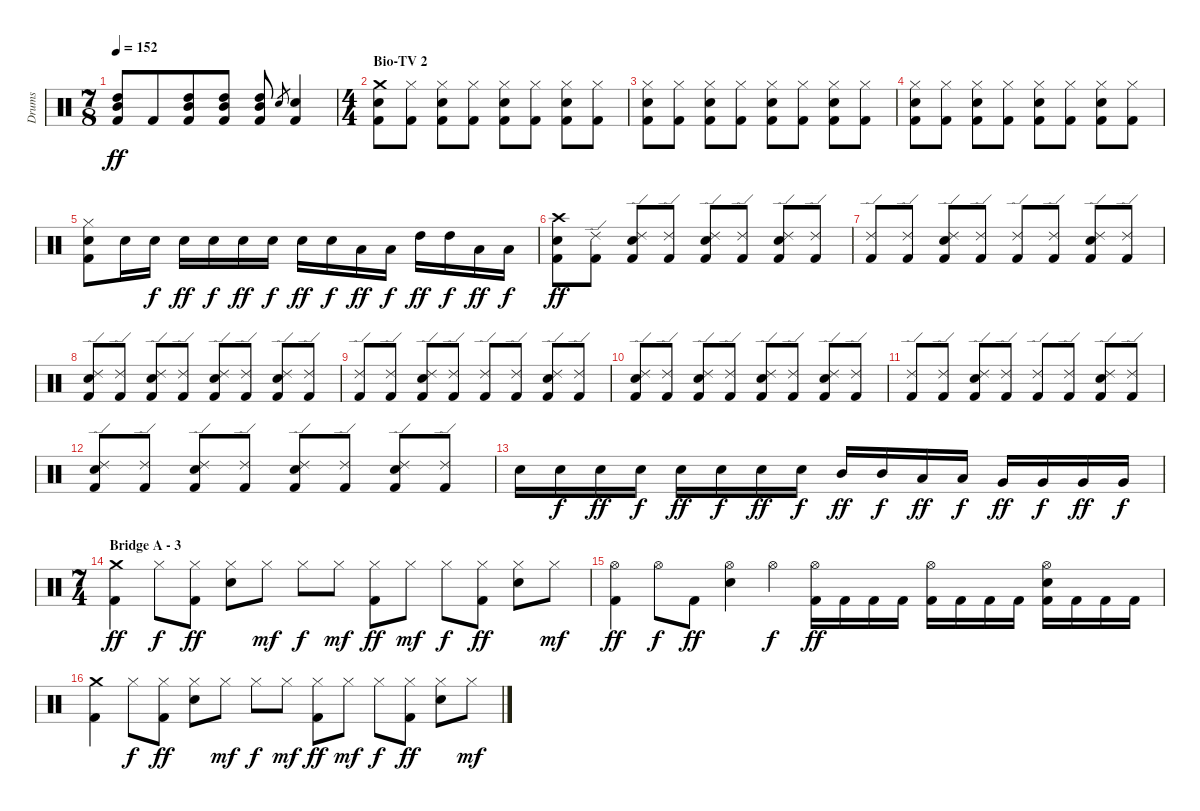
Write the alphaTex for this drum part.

\track ("Drums" "Drums") {instrument percussion}
\staff {score}
\articulation defaults
\ts (7 8)
\tempo 152
\clef neutral
\ks c
("High Tom (hit)" "Mid Tom (hit)" "Kick (hit) 2").8{dy ff} "Kick (hit) 2".8 ("High Tom (hit)" "Mid Tom (hit)" "Kick (hit) 2").8 ("High Tom (hit)" "Mid Tom (hit)" "Kick (hit) 2").8 ("High Tom (hit)" "Mid Tom (hit)" "Kick (hit) 2").8 "Electric Snare (hit)".8{gr} ("Electric Snare (hit)" "Kick (hit) 2").4 |
\ts (4 4)
\section ("" "Bio-TV 2")
("Crash medium (hit)" "Electric Snare (hit)" "Kick (hit) 2").8 ("Hi-Hat (closed)" "Kick (hit) 2").8 ("Hi-Hat (closed)" "Electric Snare (hit)" "Kick (hit) 2").8 ("Hi-Hat (closed)" "Kick (hit) 2").8 ("Hi-Hat (closed)" "Electric Snare (hit)" "Kick (hit) 2").8 ("Hi-Hat (closed)" "Kick (hit) 2").8 ("Hi-Hat (closed)" "Electric Snare (hit)" "Kick (hit) 2").8 ("Hi-Hat (closed)" "Kick (hit) 2").8 |
("Hi-Hat (closed)" "Electric Snare (hit)" "Kick (hit) 2").8 ("Hi-Hat (closed)" "Kick (hit) 2").8 ("Hi-Hat (closed)" "Electric Snare (hit)" "Kick (hit) 2").8 ("Hi-Hat (closed)" "Kick (hit) 2").8 ("Hi-Hat (closed)" "Electric Snare (hit)" "Kick (hit) 2").8 ("Hi-Hat (closed)" "Kick (hit) 2").8 ("Hi-Hat (closed)" "Electric Snare (hit)" "Kick (hit) 2").8 ("Hi-Hat (closed)" "Kick (hit) 2").8 |
("Hi-Hat (closed)" "Electric Snare (hit)" "Kick (hit) 2").8 ("Hi-Hat (closed)" "Kick (hit) 2").8 ("Hi-Hat (closed)" "Electric Snare (hit)" "Kick (hit) 2").8 ("Hi-Hat (closed)" "Kick (hit) 2").8 ("Hi-Hat (closed)" "Electric Snare (hit)" "Kick (hit) 2").8 ("Hi-Hat (closed)" "Kick (hit) 2").8 ("Hi-Hat (closed)" "Electric Snare (hit)" "Kick (hit) 2").8 ("Hi-Hat (closed)" "Kick (hit) 2").8 |
("Hi-Hat (closed)" "Electric Snare (hit)" "Kick (hit) 2").8 "Electric Snare (hit)".16 "Electric Snare (hit)".16{dy f} "Electric Snare (hit)".16{dy ff} "Electric Snare (hit)".16{dy f} "Electric Snare (hit)".16{dy ff} "Electric Snare (hit)".16{dy f} "Electric Snare (hit)".16{dy ff} "Electric Snare (hit)".16{dy f} "Low Tom (hit)".16{dy ff} "Low Tom (hit)".16{dy f} "High Tom (hit)".16{dy ff} "High Tom (hit)".16{dy f} "Low Tom (hit)".16{dy ff} "Low Tom (hit)".16{dy f} |
("Crash high (hit)" "Electric Snare (hit)" "Kick (hit) 2").8{dy ff} ("Ride (edge) 2" "Kick (hit) 2").8 ("Ride (edge) 2" "Electric Snare (hit)" "Kick (hit) 2").8 ("Ride (edge) 2" "Kick (hit) 2").8 ("Ride (edge) 2" "Electric Snare (hit)" "Kick (hit) 2").8 ("Ride (edge) 2" "Kick (hit) 2").8 ("Ride (edge) 2" "Electric Snare (hit)" "Kick (hit) 2").8 ("Ride (edge) 2" "Kick (hit) 2").8 |
("Ride (edge) 2" "Kick (hit) 2").8 ("Ride (edge) 2" "Kick (hit) 2").8 ("Ride (edge) 2" "Electric Snare (hit)" "Kick (hit) 2").8 ("Ride (edge) 2" "Kick (hit) 2").8 ("Ride (edge) 2" "Kick (hit) 2").8 ("Ride (edge) 2" "Kick (hit) 2").8 ("Ride (edge) 2" "Electric Snare (hit)" "Kick (hit) 2").8 ("Ride (edge) 2" "Kick (hit) 2").8 |
("Ride (edge) 2" "Electric Snare (hit)" "Kick (hit) 2").8 ("Ride (edge) 2" "Kick (hit) 2").8 ("Ride (edge) 2" "Electric Snare (hit)" "Kick (hit) 2").8 ("Ride (edge) 2" "Kick (hit) 2").8 ("Ride (edge) 2" "Electric Snare (hit)" "Kick (hit) 2").8 ("Ride (edge) 2" "Kick (hit) 2").8 ("Ride (edge) 2" "Electric Snare (hit)" "Kick (hit) 2").8 ("Ride (edge) 2" "Kick (hit) 2").8 |
("Ride (edge) 2" "Kick (hit) 2").8 ("Ride (edge) 2" "Kick (hit) 2").8 ("Ride (edge) 2" "Electric Snare (hit)" "Kick (hit) 2").8 ("Ride (edge) 2" "Kick (hit) 2").8 ("Ride (edge) 2" "Kick (hit) 2").8 ("Ride (edge) 2" "Kick (hit) 2").8 ("Ride (edge) 2" "Electric Snare (hit)" "Kick (hit) 2").8 ("Ride (edge) 2" "Kick (hit) 2").8 |
("Ride (edge) 2" "Electric Snare (hit)" "Kick (hit) 2").8 ("Ride (edge) 2" "Kick (hit) 2").8 ("Ride (edge) 2" "Electric Snare (hit)" "Kick (hit) 2").8 ("Ride (edge) 2" "Kick (hit) 2").8 ("Ride (edge) 2" "Electric Snare (hit)" "Kick (hit) 2").8 ("Ride (edge) 2" "Kick (hit) 2").8 ("Ride (edge) 2" "Electric Snare (hit)" "Kick (hit) 2").8 ("Ride (edge) 2" "Kick (hit) 2").8 |
("Ride (edge) 2" "Kick (hit) 2").8 ("Ride (edge) 2" "Kick (hit) 2").8 ("Ride (edge) 2" "Electric Snare (hit)" "Kick (hit) 2").8 ("Ride (edge) 2" "Kick (hit) 2").8 ("Ride (edge) 2" "Kick (hit) 2").8 ("Ride (edge) 2" "Kick (hit) 2").8 ("Ride (edge) 2" "Electric Snare (hit)" "Kick (hit) 2").8 ("Ride (edge) 2" "Kick (hit) 2").8 |
("Ride (edge) 2" "Electric Snare (hit)" "Kick (hit) 2").8 ("Ride (edge) 2" "Kick (hit) 2").8 ("Ride (edge) 2" "Electric Snare (hit)" "Kick (hit) 2").8 ("Ride (edge) 2" "Kick (hit) 2").8 ("Ride (edge) 2" "Electric Snare (hit)" "Kick (hit) 2").8 ("Ride (edge) 2" "Kick (hit) 2").8 ("Ride (edge) 2" "Electric Snare (hit)" "Kick (hit) 2").8 ("Ride (edge) 2" "Kick (hit) 2").8 |
"Electric Snare (hit)".16 "Electric Snare (hit)".16{dy f} "Electric Snare (hit)".16{dy ff} "Electric Snare (hit)".16{dy f} "Electric Snare (hit)".16{dy ff} "Electric Snare (hit)".16{dy f} "Electric Snare (hit)".16{dy ff} "Electric Snare (hit)".16{dy f} "Mid Tom (hit)".16{dy ff} "Mid Tom (hit)".16{dy f} "Low Tom (hit)".16{dy ff} "Low Tom (hit)".16{dy f} "Very Low Tom (hit)".16{dy ff} "Very Low Tom (hit)".16{dy f} "Very Low Tom (hit)".16{dy ff} "Very Low Tom (hit)".16{dy f} |
\ts (7 4)
\section ("" "Bridge A - 3")
("Crash medium (hit)" "Kick (hit) 2").4{dy ff} "Hi-Hat (closed)".8{dy f} ("Hi-Hat (closed)" "Kick (hit) 2").8{dy ff} ("Hi-Hat (closed)" "Electric Snare (hit)").8 "Hi-Hat (closed)".8{dy mf} "Hi-Hat (closed)".8{dy f} "Hi-Hat (closed)".8{dy mf} ("Hi-Hat (closed)" "Kick (hit) 2").8{dy ff} "Hi-Hat (closed)".8{dy mf} "Hi-Hat (closed)".8{dy f} ("Hi-Hat (closed)" "Kick (hit) 2").8{dy ff} ("Hi-Hat (closed)" "Electric Snare (hit)").8 "Hi-Hat (closed)".8{dy mf} |
("Hi-Hat (open)" "Kick (hit) 2").4{dy ff} "Hi-Hat (open)".8{dy f} "Kick (hit) 2".8{dy ff} ("Hi-Hat (open)" "Electric Snare (hit)").4 "Hi-Hat (open)".4{dy f} ("Hi-Hat (open)" "Kick (hit) 2").16{dy ff} "Kick (hit) 2".16 "Kick (hit) 2".16 "Kick (hit) 2".16 ("Hi-Hat (open)" "Kick (hit) 2").16 "Kick (hit) 2".16 "Kick (hit) 2".16 "Kick (hit) 2".16 ("Hi-Hat (open)" "Electric Snare (hit)" "Kick (hit) 2").16 "Kick (hit) 2".16 "Kick (hit) 2".16 "Kick (hit) 2".16 |
("Crash medium (hit)" "Kick (hit) 2").4 "Hi-Hat (closed)".8{dy f} ("Hi-Hat (closed)" "Kick (hit) 2").8{dy ff} ("Hi-Hat (closed)" "Electric Snare (hit)").8 "Hi-Hat (closed)".8{dy mf} "Hi-Hat (closed)".8{dy f} "Hi-Hat (closed)".8{dy mf} ("Hi-Hat (closed)" "Kick (hit) 2").8{dy ff} "Hi-Hat (closed)".8{dy mf} "Hi-Hat (closed)".8{dy f} ("Hi-Hat (closed)" "Kick (hit) 2").8{dy ff} ("Hi-Hat (closed)" "Electric Snare (hit)").8 "Hi-Hat (closed)".8{dy mf}
